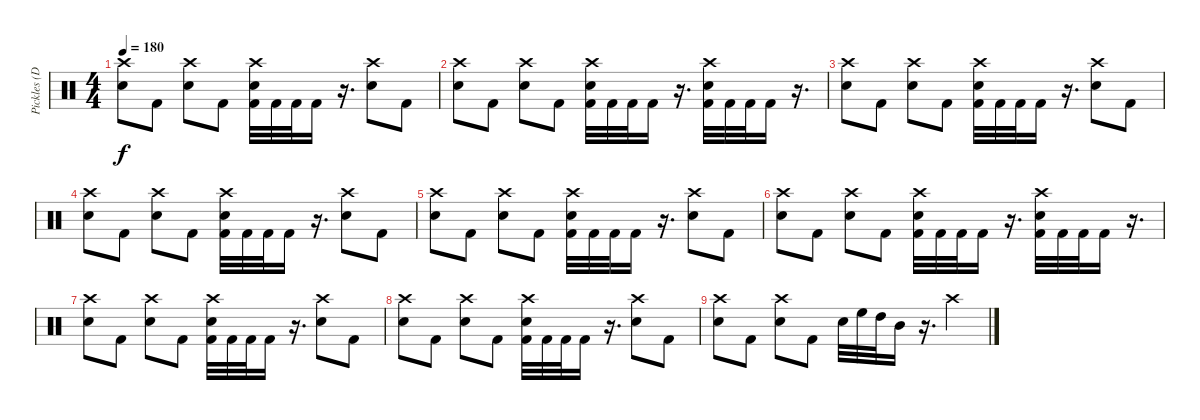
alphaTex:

\track ("Pickles (Drums)" "Pickles (D") {instrument percussion}
\staff {score}
\articulation defaults
\ts (4 4)
\tempo 180
\clef neutral
\ks c
("Crash high (hit)" "Snare (hit) 2").8{dy f} "Kick (hit) 2".8 ("Crash high (hit)" "Snare (hit) 2").8 "Kick (hit) 2".8 ("Crash high (hit)" "Snare (hit) 2" "Kick (hit) 2").32 "Kick (hit) 2".32 "Kick (hit) 2".32 "Kick (hit) 2".16 r.16{d} ("Crash high (hit)" "Snare (hit) 2").8 "Kick (hit) 2".8 |
("Crash high (hit)" "Snare (hit) 2").8 "Kick (hit) 2".8 ("Crash high (hit)" "Snare (hit) 2").8 "Kick (hit) 2".8 ("Crash high (hit)" "Snare (hit) 2" "Kick (hit) 2").32 "Kick (hit) 2".32 "Kick (hit) 2".32 "Kick (hit) 2".16 r.16{d} ("Crash high (hit)" "Snare (hit) 2" "Kick (hit) 2").32 "Kick (hit) 2".32 "Kick (hit) 2".32 "Kick (hit) 2".16 r.16{d} |
("Crash high (hit)" "Snare (hit) 2").8 "Kick (hit) 2".8 ("Crash high (hit)" "Snare (hit) 2").8 "Kick (hit) 2".8 ("Crash high (hit)" "Snare (hit) 2" "Kick (hit) 2").32 "Kick (hit) 2".32 "Kick (hit) 2".32 "Kick (hit) 2".16 r.16{d} ("Crash high (hit)" "Snare (hit) 2").8 "Kick (hit) 2".8 |
("Crash high (hit)" "Snare (hit) 2").8 "Kick (hit) 2".8 ("Crash high (hit)" "Snare (hit) 2").8 "Kick (hit) 2".8 ("Crash high (hit)" "Snare (hit) 2" "Kick (hit) 2").32 "Kick (hit) 2".32 "Kick (hit) 2".32 "Kick (hit) 2".16 r.16{d} ("Crash high (hit)" "Snare (hit) 2").8 "Kick (hit) 2".8 |
("Crash high (hit)" "Snare (hit) 2").8 "Kick (hit) 2".8 ("Crash high (hit)" "Snare (hit) 2").8 "Kick (hit) 2".8 ("Crash high (hit)" "Snare (hit) 2" "Kick (hit) 2").32 "Kick (hit) 2".32 "Kick (hit) 2".32 "Kick (hit) 2".16 r.16{d} ("Crash high (hit)" "Snare (hit) 2").8 "Kick (hit) 2".8 |
("Crash high (hit)" "Snare (hit) 2").8 "Kick (hit) 2".8 ("Crash high (hit)" "Snare (hit) 2").8 "Kick (hit) 2".8 ("Crash high (hit)" "Snare (hit) 2" "Kick (hit) 2").32 "Kick (hit) 2".32 "Kick (hit) 2".32 "Kick (hit) 2".16 r.16{d} ("Crash high (hit)" "Snare (hit) 2" "Kick (hit) 2").32 "Kick (hit) 2".32 "Kick (hit) 2".32 "Kick (hit) 2".16 r.16{d} |
("Crash high (hit)" "Snare (hit) 2").8 "Kick (hit) 2".8 ("Crash high (hit)" "Snare (hit) 2").8 "Kick (hit) 2".8 ("Crash high (hit)" "Snare (hit) 2" "Kick (hit) 2").32 "Kick (hit) 2".32 "Kick (hit) 2".32 "Kick (hit) 2".16 r.16{d} ("Crash high (hit)" "Snare (hit) 2").8 "Kick (hit) 2".8 |
("Crash high (hit)" "Snare (hit) 2").8 "Kick (hit) 2".8 ("Crash high (hit)" "Snare (hit) 2").8 "Kick (hit) 2".8 ("Crash high (hit)" "Snare (hit) 2" "Kick (hit) 2").32 "Kick (hit) 2".32 "Kick (hit) 2".32 "Kick (hit) 2".16 r.16{d} ("Crash high (hit)" "Snare (hit) 2").8 "Kick (hit) 2".8 |
("Crash high (hit)" "Snare (hit) 2").8 "Kick (hit) 2".8 ("Crash high (hit)" "Snare (hit) 2").8 "Kick (hit) 2".8 "Snare (hit) 2".32 "High Floor Tom (hit)".32 "High Tom (hit)".32 "Mid Tom (hit)".16 r.16{d} "Crash high (hit)".4
